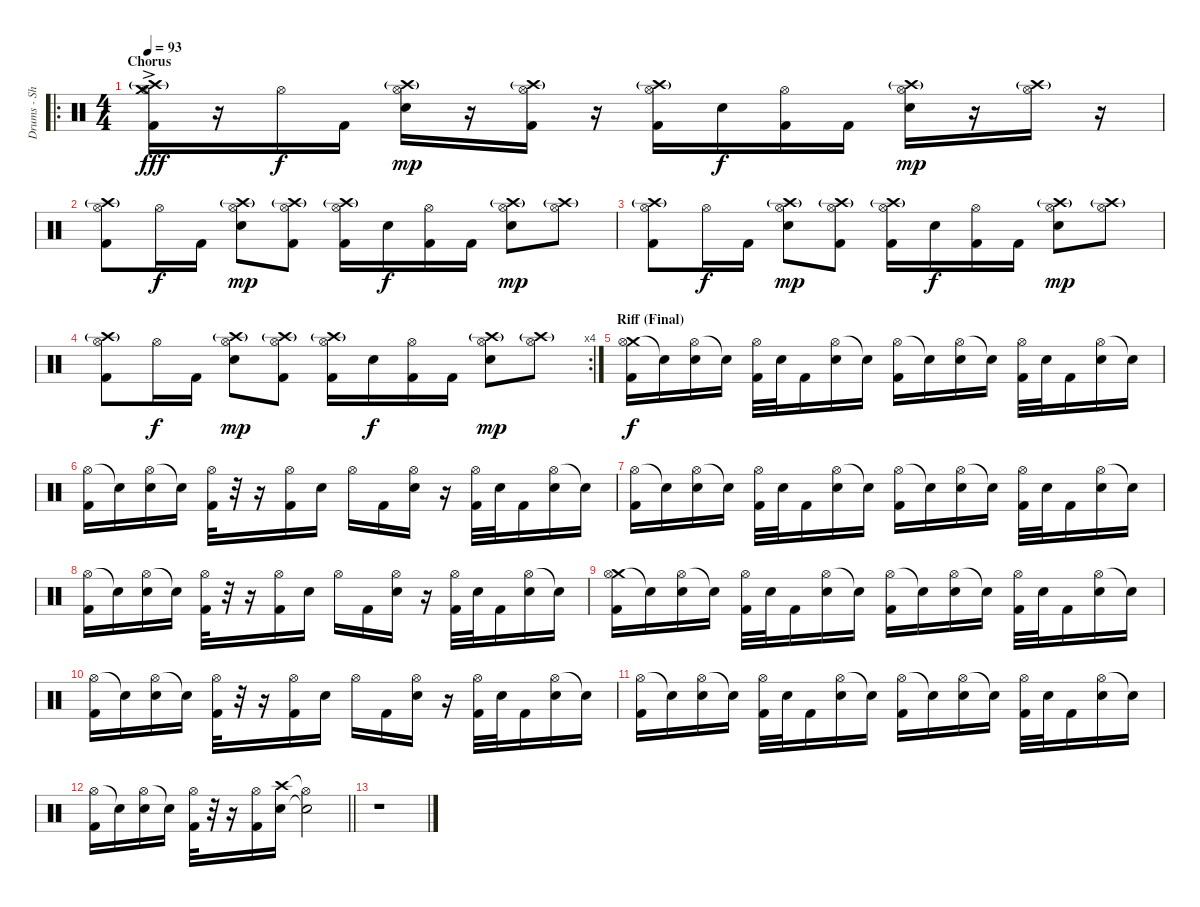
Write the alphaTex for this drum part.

\track ("Drums - Shinya" "Drums - Sh") {instrument percussion}
\staff {score}
\articulation defaults
\ro
\ts (4 4)
\section ("" "Chorus")
\tempo 93
\clef neutral
\ks c
("Crash high (hit)"{g} "Hi-Hat (open)" "Crash medium (hit)"{ac} "Kick (hit) 2").16{dy fff} r.16 "Hi-Hat (open)".16{dy f} "Kick (hit) 2".16 ("Crash high (hit)"{g} "Hi-Hat (open)" "Electric Snare (hit)").16{dy mp} r.16 ("Crash high (hit)"{g} "Hi-Hat (open)" "Kick (hit) 2").16 r.16 ("Crash high (hit)"{g} "Hi-Hat (open)" "Kick (hit) 2").16 "Electric Snare (hit)".16{dy f} ("Hi-Hat (open)" "Kick (hit) 2").16 "Kick (hit) 2".16 ("Crash high (hit)"{g} "Hi-Hat (open)" "Electric Snare (hit)").16{dy mp} r.16 ("Crash high (hit)"{g} "Hi-Hat (open)").16 r.16 |
("Crash high (hit)"{g} "Hi-Hat (open)" "Kick (hit) 2").8 "Hi-Hat (open)".16{dy f} "Kick (hit) 2".16 ("Crash high (hit)"{g} "Hi-Hat (open)" "Electric Snare (hit)").8{dy mp} ("Crash high (hit)"{g} "Hi-Hat (open)" "Kick (hit) 2").8 ("Crash high (hit)"{g} "Hi-Hat (open)" "Kick (hit) 2").16 "Electric Snare (hit)".16{dy f} ("Hi-Hat (open)" "Kick (hit) 2").16 "Kick (hit) 2".16 ("Crash high (hit)"{g} "Hi-Hat (open)" "Electric Snare (hit)").8{dy mp} ("Crash high (hit)"{g} "Hi-Hat (open)").8 |
("Crash high (hit)"{g} "Hi-Hat (open)" "Kick (hit) 2").8 "Hi-Hat (open)".16{dy f} "Kick (hit) 2".16 ("Crash high (hit)"{g} "Hi-Hat (open)" "Electric Snare (hit)").8{dy mp} ("Crash high (hit)"{g} "Hi-Hat (open)" "Kick (hit) 2").8 ("Crash high (hit)"{g} "Hi-Hat (open)" "Kick (hit) 2").16 "Electric Snare (hit)".16{dy f} ("Hi-Hat (open)" "Kick (hit) 2").16 "Kick (hit) 2".16 ("Crash high (hit)"{g} "Hi-Hat (open)" "Electric Snare (hit)").8{dy mp} ("Crash high (hit)"{g} "Hi-Hat (open)").8 |
\rc 4
("Crash high (hit)"{g} "Hi-Hat (open)" "Kick (hit) 2").8 "Hi-Hat (open)".16{dy f} "Kick (hit) 2".16 ("Crash high (hit)"{g} "Hi-Hat (open)" "Electric Snare (hit)").8{dy mp} ("Crash high (hit)"{g} "Hi-Hat (open)" "Kick (hit) 2").8 ("Crash high (hit)"{g} "Hi-Hat (open)" "Kick (hit) 2").16 "Electric Snare (hit)".16{dy f} ("Hi-Hat (open)" "Kick (hit) 2").16 "Kick (hit) 2".16 ("Crash high (hit)"{g} "Hi-Hat (open)" "Electric Snare (hit)").8{dy mp} ("Crash high (hit)"{g} "Hi-Hat (open)").8 |
\section ("" "Riff (Final)")
("Crash medium (hit)" "Hi-Hat (open)" "Kick (hit) 2").16{dy f} "Snare (hit)"{t}.16 ("Hi-Hat (open)" "Electric Snare (hit)").16 "Snare (hit)"{t}.16 ("Hi-Hat (open)" "Kick (hit) 2").32 "Electric Snare (hit)".32 "Kick (hit) 2".16 ("Hi-Hat (open)" "Electric Snare (hit)").16 "Snare (hit)"{t}.16 ("Hi-Hat (open)" "Kick (hit) 2").16 "Snare (hit)"{t}.16 ("Hi-Hat (open)" "Electric Snare (hit)").16 "Electric Snare (hit)"{t}.16 ("Hi-Hat (open)" "Kick (hit) 2").32 "Electric Snare (hit)".32 "Kick (hit) 2".16 ("Hi-Hat (open)" "Electric Snare (hit)").16 "Snare (hit)"{t}.16 |
("Hi-Hat (open)" "Kick (hit) 2").16 "Snare (hit)"{t}.16 ("Hi-Hat (open)" "Electric Snare (hit)").16 "Snare (hit)"{t}.16 ("Hi-Hat (open)" "Kick (hit) 2").32 r.32 r.16 ("Hi-Hat (open)" "Kick (hit) 2").16 "Electric Snare (hit)".16 "Hi-Hat (open)".16 "Kick (hit) 2".16 ("Hi-Hat (open)" "Electric Snare (hit)").16 r.16 ("Hi-Hat (open)" "Kick (hit) 2").32 "Electric Snare (hit)".32 "Kick (hit) 2".16 ("Hi-Hat (open)" "Electric Snare (hit)").16 "Snare (hit)"{t}.16 |
("Hi-Hat (open)" "Kick (hit) 2").16 "Snare (hit)"{t}.16 ("Hi-Hat (open)" "Electric Snare (hit)").16 "Snare (hit)"{t}.16 ("Hi-Hat (open)" "Kick (hit) 2").32 "Electric Snare (hit)".32 "Kick (hit) 2".16 ("Hi-Hat (open)" "Electric Snare (hit)").16 "Snare (hit)"{t}.16 ("Hi-Hat (open)" "Kick (hit) 2").16 "Snare (hit)"{t}.16 ("Hi-Hat (open)" "Electric Snare (hit)").16 "Electric Snare (hit)"{t}.16 ("Hi-Hat (open)" "Kick (hit) 2").32 "Electric Snare (hit)".32 "Kick (hit) 2".16 ("Hi-Hat (open)" "Electric Snare (hit)").16 "Snare (hit)"{t}.16 |
("Hi-Hat (open)" "Kick (hit) 2").16 "Snare (hit)"{t}.16 ("Hi-Hat (open)" "Electric Snare (hit)").16 "Snare (hit)"{t}.16 ("Hi-Hat (open)" "Kick (hit) 2").32 r.32 r.16 ("Hi-Hat (open)" "Kick (hit) 2").16 "Electric Snare (hit)".16 "Hi-Hat (open)".16 "Kick (hit) 2".16 ("Hi-Hat (open)" "Electric Snare (hit)").16 r.16 ("Hi-Hat (open)" "Kick (hit) 2").32 "Electric Snare (hit)".32 "Kick (hit) 2".16 ("Hi-Hat (open)" "Electric Snare (hit)").16 "Snare (hit)"{t}.16 |
("Crash medium (hit)" "Hi-Hat (open)" "Kick (hit) 2").16 "Snare (hit)"{t}.16 ("Hi-Hat (open)" "Electric Snare (hit)").16 "Snare (hit)"{t}.16 ("Hi-Hat (open)" "Kick (hit) 2").32 "Electric Snare (hit)".32 "Kick (hit) 2".16 ("Hi-Hat (open)" "Electric Snare (hit)").16 "Snare (hit)"{t}.16 ("Hi-Hat (open)" "Kick (hit) 2").16 "Snare (hit)"{t}.16 ("Hi-Hat (open)" "Electric Snare (hit)").16 "Electric Snare (hit)"{t}.16 ("Hi-Hat (open)" "Kick (hit) 2").32 "Electric Snare (hit)".32 "Kick (hit) 2".16 ("Hi-Hat (open)" "Electric Snare (hit)").16 "Snare (hit)"{t}.16 |
("Hi-Hat (open)" "Kick (hit) 2").16 "Snare (hit)"{t}.16 ("Hi-Hat (open)" "Electric Snare (hit)").16 "Snare (hit)"{t}.16 ("Hi-Hat (open)" "Kick (hit) 2").32 r.32 r.16 ("Hi-Hat (open)" "Kick (hit) 2").16 "Electric Snare (hit)".16 "Hi-Hat (open)".16 "Kick (hit) 2".16 ("Hi-Hat (open)" "Electric Snare (hit)").16 r.16 ("Hi-Hat (open)" "Kick (hit) 2").32 "Electric Snare (hit)".32 "Kick (hit) 2".16 ("Hi-Hat (open)" "Electric Snare (hit)").16 "Snare (hit)"{t}.16 |
("Hi-Hat (open)" "Kick (hit) 2").16 "Snare (hit)"{t}.16 ("Hi-Hat (open)" "Electric Snare (hit)").16 "Snare (hit)"{t}.16 ("Hi-Hat (open)" "Kick (hit) 2").32 "Electric Snare (hit)".32 "Kick (hit) 2".16 ("Hi-Hat (open)" "Electric Snare (hit)").16 "Snare (hit)"{t}.16 ("Hi-Hat (open)" "Kick (hit) 2").16 "Snare (hit)"{t}.16 ("Hi-Hat (open)" "Electric Snare (hit)").16 "Electric Snare (hit)"{t}.16 ("Hi-Hat (open)" "Kick (hit) 2").32 "Electric Snare (hit)".32 "Kick (hit) 2".16 ("Hi-Hat (open)" "Electric Snare (hit)").16 "Snare (hit)"{t}.16 |
\barLineRight lightlight
("Hi-Hat (open)" "Kick (hit) 2").16 "Snare (hit)"{t}.16 ("Hi-Hat (open)" "Electric Snare (hit)").16 "Snare (hit)"{t}.16 ("Hi-Hat (open)" "Kick (hit) 2").32 r.32 r.16 ("Hi-Hat (open)" "Kick (hit) 2").16 ("Crash high (hit)" "Electric Snare (hit)").16 ("Hi-Hat (open)"{t} "Snare (hit)"{t}).2 |
r.1
